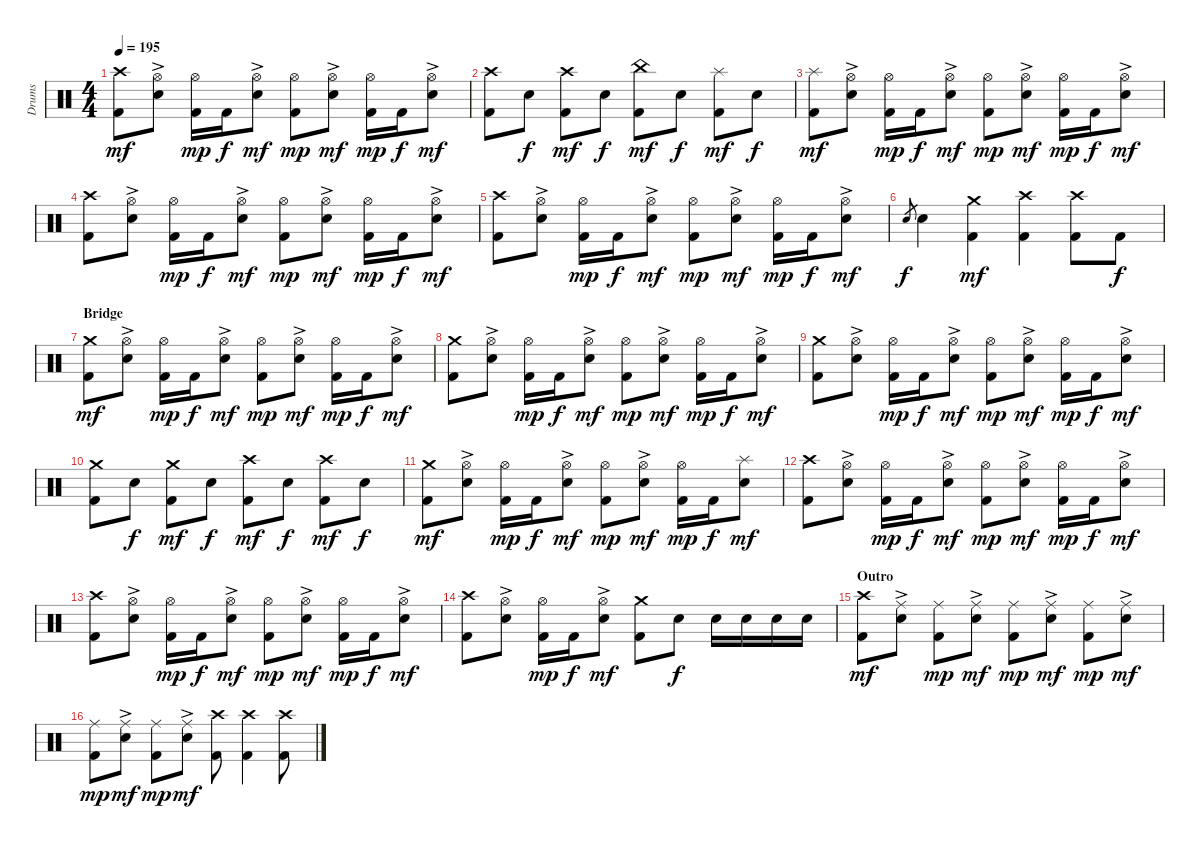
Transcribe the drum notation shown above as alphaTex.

\track ("Drums" "Drums") {instrument percussion}
\staff {score}
\articulation defaults
\ts (4 4)
\tempo 195
\clef neutral
\ks c
("Crash high (hit)" "Kick (hit) 2").8{dy mf} ("Hi-Hat (open)"{ac} "Electric Snare (hit)").8 ("Hi-Hat (open)" "Kick (hit) 2").16{dy mp} "Kick (hit) 2".16{dy f} ("Hi-Hat (open)"{ac} "Electric Snare (hit)").8{dy mf} ("Hi-Hat (open)" "Kick (hit) 2").8{dy mp} ("Hi-Hat (open)"{ac} "Electric Snare (hit)").8{dy mf} ("Hi-Hat (open)" "Kick (hit) 2").16{dy mp} "Kick (hit) 2".16{dy f} ("Hi-Hat (open)"{ac} "Electric Snare (hit)").8{dy mf} |
("Crash high (hit)" "Kick (hit) 2").8 "Electric Snare (hit)".8{dy f} ("Crash high (hit)" "Kick (hit) 2").8{dy mf} "Electric Snare (hit)".8{dy f} ("China (hit)" "Kick (hit) 2").8{dy mf} "Electric Snare (hit)".8{dy f} ("Splash (hit)" "Kick (hit) 2").8{dy mf} "Electric Snare (hit)".8{dy f} |
("Splash (hit)" "Kick (hit) 2").8{dy mf} ("Hi-Hat (open)"{ac} "Electric Snare (hit)").8 ("Hi-Hat (open)" "Kick (hit) 2").16{dy mp} "Kick (hit) 2".16{dy f} ("Hi-Hat (open)"{ac} "Electric Snare (hit)").8{dy mf} ("Hi-Hat (open)" "Kick (hit) 2").8{dy mp} ("Hi-Hat (open)"{ac} "Electric Snare (hit)").8{dy mf} ("Hi-Hat (open)" "Kick (hit) 2").16{dy mp} "Kick (hit) 2".16{dy f} ("Hi-Hat (open)"{ac} "Electric Snare (hit)").8{dy mf} |
("Crash high (hit)" "Kick (hit) 2").8 ("Hi-Hat (open)"{ac} "Electric Snare (hit)").8 ("Hi-Hat (open)" "Kick (hit) 2").16{dy mp} "Kick (hit) 2".16{dy f} ("Hi-Hat (open)"{ac} "Electric Snare (hit)").8{dy mf} ("Hi-Hat (open)" "Kick (hit) 2").8{dy mp} ("Hi-Hat (open)"{ac} "Electric Snare (hit)").8{dy mf} ("Hi-Hat (open)" "Kick (hit) 2").16{dy mp} "Kick (hit) 2".16{dy f} ("Hi-Hat (open)"{ac} "Electric Snare (hit)").8{dy mf} |
("Crash high (hit)" "Kick (hit) 2").8 ("Hi-Hat (open)"{ac} "Electric Snare (hit)").8 ("Hi-Hat (open)" "Kick (hit) 2").16{dy mp} "Kick (hit) 2".16{dy f} ("Hi-Hat (open)"{ac} "Electric Snare (hit)").8{dy mf} ("Hi-Hat (open)" "Kick (hit) 2").8{dy mp} ("Hi-Hat (open)"{ac} "Electric Snare (hit)").8{dy mf} ("Hi-Hat (open)" "Kick (hit) 2").16{dy mp} "Kick (hit) 2".16{dy f} ("Hi-Hat (open)"{ac} "Electric Snare (hit)").8{dy mf} |
"Electric Snare (hit)".8{gr dy f} "Electric Snare (hit)".4 ("Crash medium (hit)" "Kick (hit) 2").4{dy mf} ("Crash high (hit)" "Kick (hit) 2").4 ("Crash high (hit)" "Kick (hit) 2").8 "Kick (hit) 2".8{dy f} |
\section ("" "Bridge")
("Crash medium (hit)" "Kick (hit) 2").8{dy mf} ("Hi-Hat (open)"{ac} "Electric Snare (hit)").8 ("Hi-Hat (open)" "Kick (hit) 2").16{dy mp} "Kick (hit) 2".16{dy f} ("Hi-Hat (open)"{ac} "Electric Snare (hit)").8{dy mf} ("Hi-Hat (open)" "Kick (hit) 2").8{dy mp} ("Hi-Hat (open)"{ac} "Electric Snare (hit)").8{dy mf} ("Hi-Hat (open)" "Kick (hit) 2").16{dy mp} "Kick (hit) 2".16{dy f} ("Hi-Hat (open)"{ac} "Electric Snare (hit)").8{dy mf} |
("Crash medium (hit)" "Kick (hit) 2").8 ("Hi-Hat (open)"{ac} "Electric Snare (hit)").8 ("Hi-Hat (open)" "Kick (hit) 2").16{dy mp} "Kick (hit) 2".16{dy f} ("Hi-Hat (open)"{ac} "Electric Snare (hit)").8{dy mf} ("Hi-Hat (open)" "Kick (hit) 2").8{dy mp} ("Hi-Hat (open)"{ac} "Electric Snare (hit)").8{dy mf} ("Hi-Hat (open)" "Kick (hit) 2").16{dy mp} "Kick (hit) 2".16{dy f} ("Hi-Hat (open)"{ac} "Electric Snare (hit)").8{dy mf} |
("Crash medium (hit)" "Kick (hit) 2").8 ("Hi-Hat (open)"{ac} "Electric Snare (hit)").8 ("Hi-Hat (open)" "Kick (hit) 2").16{dy mp} "Kick (hit) 2".16{dy f} ("Hi-Hat (open)"{ac} "Electric Snare (hit)").8{dy mf} ("Hi-Hat (open)" "Kick (hit) 2").8{dy mp} ("Hi-Hat (open)"{ac} "Electric Snare (hit)").8{dy mf} ("Hi-Hat (open)" "Kick (hit) 2").16{dy mp} "Kick (hit) 2".16{dy f} ("Hi-Hat (open)"{ac} "Electric Snare (hit)").8{dy mf} |
("Crash medium (hit)" "Kick (hit) 2").8 "Electric Snare (hit)".8{dy f} ("Crash medium (hit)" "Kick (hit) 2").8{dy mf} "Electric Snare (hit)".8{dy f} ("Crash high (hit)" "Kick (hit) 2").8{dy mf} "Electric Snare (hit)".8{dy f} ("Crash high (hit)" "Kick (hit) 2").8{dy mf} "Electric Snare (hit)".8{dy f} |
("Crash medium (hit)" "Kick (hit) 2").8{dy mf} ("Hi-Hat (open)"{ac} "Electric Snare (hit)").8 ("Hi-Hat (open)" "Kick (hit) 2").16{dy mp} "Kick (hit) 2".16{dy f} ("Hi-Hat (open)"{ac} "Electric Snare (hit)").8{dy mf} ("Hi-Hat (open)" "Kick (hit) 2").8{dy mp} ("Hi-Hat (open)"{ac} "Electric Snare (hit)").8{dy mf} ("Hi-Hat (open)" "Kick (hit) 2").16{dy mp} "Kick (hit) 2".16{dy f} ("Splash (hit)" "Electric Snare (hit)").8{dy mf} |
("Crash high (hit)" "Kick (hit) 2").8 ("Hi-Hat (open)"{ac} "Electric Snare (hit)").8 ("Hi-Hat (open)" "Kick (hit) 2").16{dy mp} "Kick (hit) 2".16{dy f} ("Hi-Hat (open)"{ac} "Electric Snare (hit)").8{dy mf} ("Hi-Hat (open)" "Kick (hit) 2").8{dy mp} ("Hi-Hat (open)"{ac} "Electric Snare (hit)").8{dy mf} ("Hi-Hat (open)" "Kick (hit) 2").16{dy mp} "Kick (hit) 2".16{dy f} ("Hi-Hat (open)"{ac} "Electric Snare (hit)").8{dy mf} |
("Crash high (hit)" "Kick (hit) 2").8 ("Hi-Hat (open)"{ac} "Electric Snare (hit)").8 ("Hi-Hat (open)" "Kick (hit) 2").16{dy mp} "Kick (hit) 2".16{dy f} ("Hi-Hat (open)"{ac} "Electric Snare (hit)").8{dy mf} ("Hi-Hat (open)" "Kick (hit) 2").8{dy mp} ("Hi-Hat (open)"{ac} "Electric Snare (hit)").8{dy mf} ("Hi-Hat (open)" "Kick (hit) 2").16{dy mp} "Kick (hit) 2".16{dy f} ("Hi-Hat (open)"{ac} "Electric Snare (hit)").8{dy mf} |
("Crash high (hit)" "Kick (hit) 2").8 ("Hi-Hat (open)"{ac} "Electric Snare (hit)").8 ("Hi-Hat (open)" "Kick (hit) 2").16{dy mp} "Kick (hit) 2".16{dy f} ("Hi-Hat (open)"{ac} "Electric Snare (hit)").8{dy mf} ("Crash medium (hit)" "Kick (hit) 2").8 "Electric Snare (hit)".8{dy f} "Electric Snare (hit)".16 "Electric Snare (hit)".16 "Electric Snare (hit)".16 "Electric Snare (hit)".16 |
\section ("" "Outro")
("Crash high (hit)" "Kick (hit) 2").8{dy mf} ("Ride (middle)"{ac} "Electric Snare (hit)").8 ("Ride (middle)" "Kick (hit) 2").8{dy mp} ("Ride (middle)"{ac} "Electric Snare (hit)").8{dy mf} ("Ride (middle)" "Kick (hit) 2").8{dy mp} ("Ride (middle)"{ac} "Electric Snare (hit)").8{dy mf} ("Ride (middle)" "Kick (hit) 2").8{dy mp} ("Ride (middle)"{ac} "Electric Snare (hit)").8{dy mf} |
("Ride (middle)" "Kick (hit) 2").8{dy mp} ("Ride (middle)"{ac} "Electric Snare (hit)").8{dy mf} ("Ride (middle)" "Kick (hit) 2").8{dy mp} ("Ride (middle)"{ac} "Electric Snare (hit)").8{dy mf} ("Crash high (hit)" "Kick (hit) 2").8 ("Crash high (hit)" "Kick (hit) 2").4 ("Crash high (hit)" "Kick (hit) 2").8
